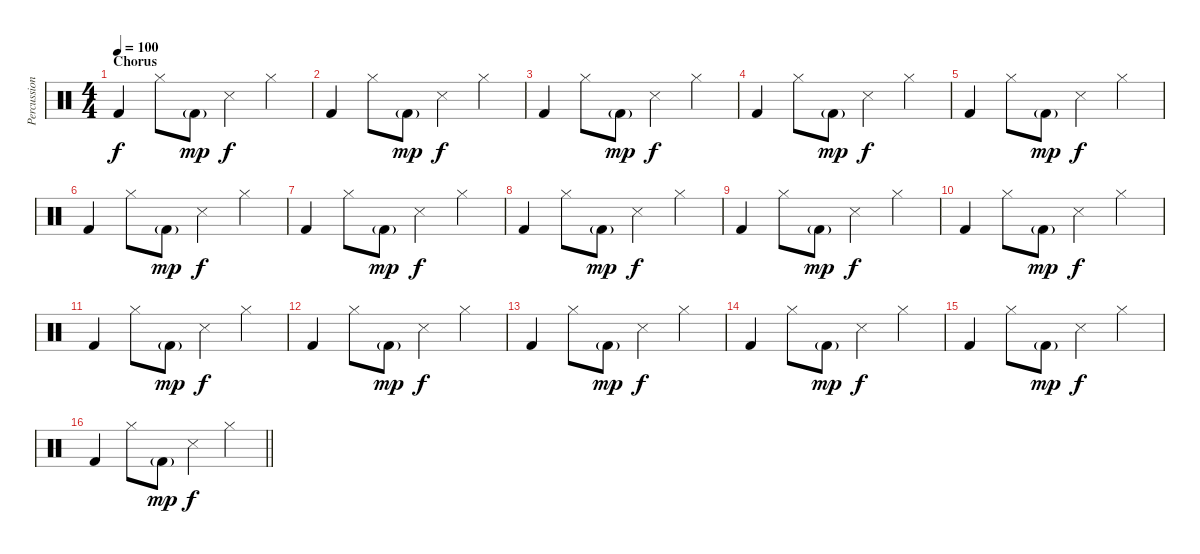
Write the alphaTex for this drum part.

\track ("Percussion" "Percussion") {instrument percussion}
\staff {score}
\articulation defaults
\ts (4 4)
\section ("" "Chorus")
\tempo 100
\clef neutral
\ks c "Kick (hit) 2".4{dy f} "Hi-Hat (closed)".8 "Kick (hit) 2"{g}.8{dy mp} "Snare (side stick) 3".4{dy f} "Hi-Hat (closed)".4
|
"Kick (hit) 2".4 "Hi-Hat (closed)".8 "Kick (hit) 2"{g}.8{dy mp} "Snare (side stick) 3".4{dy f} "Hi-Hat (closed)".4 |
"Kick (hit) 2".4 "Hi-Hat (closed)".8 "Kick (hit) 2"{g}.8{dy mp} "Snare (side stick) 3".4{dy f} "Hi-Hat (closed)".4 |
"Kick (hit) 2".4 "Hi-Hat (closed)".8 "Kick (hit) 2"{g}.8{dy mp} "Snare (side stick) 3".4{dy f} "Hi-Hat (closed)".4 |
"Kick (hit) 2".4 "Hi-Hat (closed)".8 "Kick (hit) 2"{g}.8{dy mp} "Snare (side stick) 3".4{dy f} "Hi-Hat (closed)".4 |
"Kick (hit) 2".4 "Hi-Hat (closed)".8 "Kick (hit) 2"{g}.8{dy mp} "Snare (side stick) 3".4{dy f} "Hi-Hat (closed)".4 |
"Kick (hit) 2".4 "Hi-Hat (closed)".8 "Kick (hit) 2"{g}.8{dy mp} "Snare (side stick) 3".4{dy f} "Hi-Hat (closed)".4 |
"Kick (hit) 2".4 "Hi-Hat (closed)".8 "Kick (hit) 2"{g}.8{dy mp} "Snare (side stick) 3".4{dy f} "Hi-Hat (closed)".4 |
"Kick (hit) 2".4 "Hi-Hat (closed)".8 "Kick (hit) 2"{g}.8{dy mp} "Snare (side stick) 3".4{dy f} "Hi-Hat (closed)".4 |
"Kick (hit) 2".4 "Hi-Hat (closed)".8 "Kick (hit) 2"{g}.8{dy mp} "Snare (side stick) 3".4{dy f} "Hi-Hat (closed)".4 |
"Kick (hit) 2".4 "Hi-Hat (closed)".8 "Kick (hit) 2"{g}.8{dy mp} "Snare (side stick) 3".4{dy f} "Hi-Hat (closed)".4 |
"Kick (hit) 2".4 "Hi-Hat (closed)".8 "Kick (hit) 2"{g}.8{dy mp} "Snare (side stick) 3".4{dy f} "Hi-Hat (closed)".4 |
"Kick (hit) 2".4 "Hi-Hat (closed)".8 "Kick (hit) 2"{g}.8{dy mp} "Snare (side stick) 3".4{dy f} "Hi-Hat (closed)".4 |
"Kick (hit) 2".4 "Hi-Hat (closed)".8 "Kick (hit) 2"{g}.8{dy mp} "Snare (side stick) 3".4{dy f} "Hi-Hat (closed)".4 |
"Kick (hit) 2".4 "Hi-Hat (closed)".8 "Kick (hit) 2"{g}.8{dy mp} "Snare (side stick) 3".4{dy f} "Hi-Hat (closed)".4 |
\barLineRight lightlight "Kick (hit) 2".4 "Hi-Hat (closed)".8 "Kick (hit) 2"{g}.8{dy mp} "Snare (side stick) 3".4{dy f} "Hi-Hat (closed)".4
